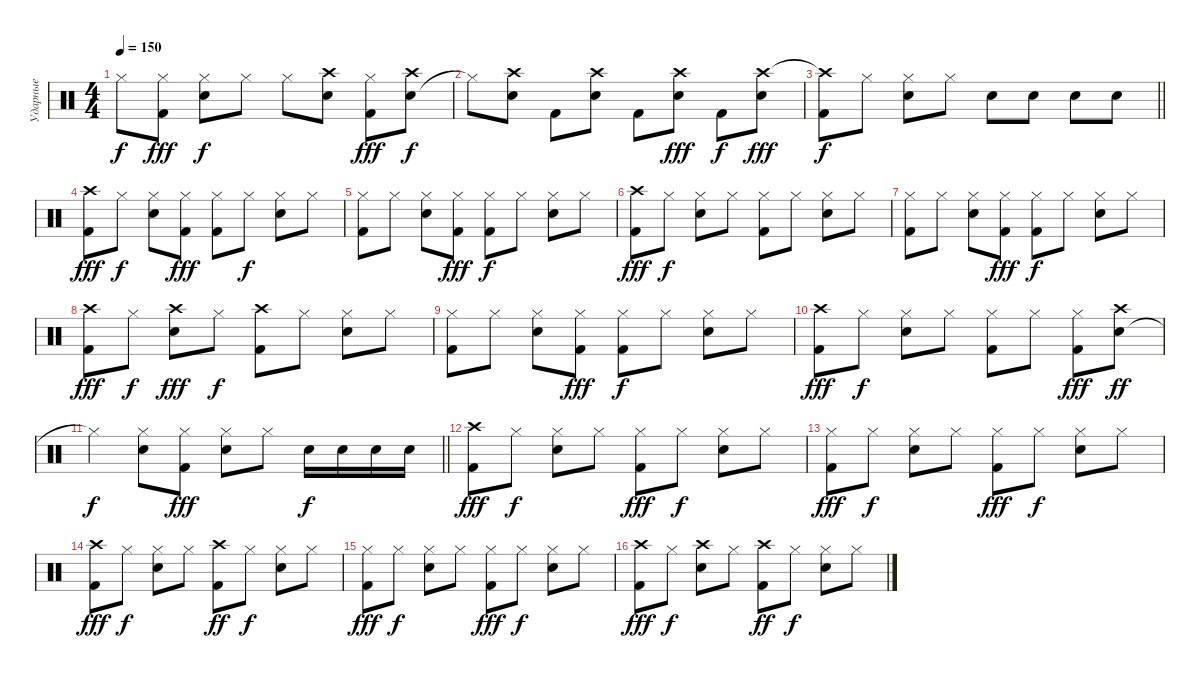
\track ("Ударные" "Ударные") {instrument percussion}
\staff
\articulation defaults
\ts (4 4)
\tempo 150
\clef neutral
\ks c "Hi-Hat (closed)"{t}.8{dy f}
("Kick (hit) 2" "Hi-Hat (closed)").8{dy fff} ("Snare (hit) 2" "Hi-Hat (closed)").8{dy f} "Hi-Hat (closed)".8 "Hi-Hat (closed)".8 ("Snare (hit) 2" "Crash high (hit)").8 ("Kick (hit) 2" "Hi-Hat (closed)").8{dy fff} ("Snare (hit) 2" "Crash high (hit)").8{dy f} |
"Hi-Hat (closed)"{t}.8 ("Snare (hit) 2" "Crash high (hit)").8 "Kick (hit) 2".8 ("Snare (hit) 2" "Crash high (hit)").8 "Kick (hit) 2".8 ("Snare (hit) 2" "Crash high (hit)").8{dy fff} "Kick (hit) 2".8{dy f} ("Snare (hit) 2" "Crash high (hit)").8{dy fff} |
\barLineRight lightlight
("Kick (hit) 2" "Crash high (hit)"{t}).8{dy f} "Hi-Hat (closed)".8 ("Snare (hit) 2" "Hi-Hat (closed)").8 "Hi-Hat (closed)".8 "Snare (hit) 2".8 "Snare (hit) 2".8 "Snare (hit) 2".8 "Snare (hit) 2".8 |
("Kick (hit) 2" "Crash high (hit)").8{dy fff} "Hi-Hat (closed)".8{dy f} ("Snare (hit) 2" "Hi-Hat (closed)").8 ("Kick (hit) 2" "Hi-Hat (closed)").8{dy fff} ("Kick (hit) 2" "Hi-Hat (closed)").8 "Hi-Hat (closed)".8{dy f} ("Snare (hit) 2" "Hi-Hat (closed)").8 "Hi-Hat (closed)".8 |
("Kick (hit) 2" "Hi-Hat (closed)").8 "Hi-Hat (closed)".8 ("Snare (hit) 2" "Hi-Hat (closed)").8 ("Kick (hit) 2" "Hi-Hat (closed)").8{dy fff} ("Kick (hit) 2" "Hi-Hat (closed)").8{dy f} "Hi-Hat (closed)".8 ("Snare (hit) 2" "Hi-Hat (closed)").8 "Hi-Hat (closed)".8 |
("Kick (hit) 2" "Crash high (hit)").8{dy fff} "Hi-Hat (closed)".8{dy f} ("Snare (hit) 2" "Hi-Hat (closed)").8 "Hi-Hat (closed)".8 ("Kick (hit) 2" "Hi-Hat (closed)").8 "Hi-Hat (closed)".8 ("Snare (hit) 2" "Hi-Hat (closed)").8 "Hi-Hat (closed)".8 |
("Kick (hit) 2" "Hi-Hat (closed)").8 "Hi-Hat (closed)".8 ("Snare (hit) 2" "Hi-Hat (closed)").8 ("Kick (hit) 2" "Hi-Hat (closed)").8{dy fff} ("Kick (hit) 2" "Hi-Hat (closed)").8{dy f} "Hi-Hat (closed)".8 ("Snare (hit) 2" "Hi-Hat (closed)").8 "Hi-Hat (closed)".8 |
("Kick (hit) 2" "Crash high (hit)").8{dy fff} "Hi-Hat (closed)".8{dy f} ("Snare (hit) 2" "Crash high (hit)").8{dy fff} "Hi-Hat (closed)".8{dy f} ("Kick (hit) 2" "Crash high (hit)").8 "Hi-Hat (closed)".8 ("Snare (hit) 2" "Hi-Hat (closed)").8 "Hi-Hat (closed)".8 |
("Kick (hit) 2" "Hi-Hat (closed)").8 "Hi-Hat (closed)".8 ("Snare (hit) 2" "Hi-Hat (closed)").8 ("Kick (hit) 2" "Hi-Hat (closed)").8{dy fff} ("Kick (hit) 2" "Hi-Hat (closed)").8{dy f} "Hi-Hat (closed)".8 ("Snare (hit) 2" "Hi-Hat (closed)").8 "Hi-Hat (closed)".8 |
("Kick (hit) 2" "Crash high (hit)").8{dy fff} "Hi-Hat (closed)".8{dy f} ("Snare (hit) 2" "Hi-Hat (closed)").8 "Hi-Hat (closed)".8 ("Kick (hit) 2" "Hi-Hat (closed)").8 "Hi-Hat (closed)".8 ("Kick (hit) 2" "Hi-Hat (closed)").8{dy fff} ("Snare (hit) 2" "Crash high (hit)").8{dy ff} |
\barLineRight lightlight "Hi-Hat (closed)"{t}.4{dy f}
("Snare (hit) 2" "Hi-Hat (closed)").8 ("Kick (hit) 2" "Hi-Hat (closed)").8{dy fff} ("Snare (hit) 2" "Hi-Hat (closed)").8 "Hi-Hat (closed)".8 "Snare (hit) 2".16{dy f} "Snare (hit) 2".16 "Snare (hit) 2".16 "Snare (hit) 2".16 |
("Kick (hit) 2" "Crash high (hit)").8{dy fff} "Hi-Hat (closed)".8{dy f} ("Snare (hit) 2" "Hi-Hat (closed)").8 "Hi-Hat (closed)".8 ("Kick (hit) 2" "Hi-Hat (closed)").8{dy fff} "Hi-Hat (closed)".8{dy f} ("Snare (hit) 2" "Hi-Hat (closed)").8 "Hi-Hat (closed)".8 |
("Kick (hit) 2" "Hi-Hat (closed)").8{dy fff} "Hi-Hat (closed)".8{dy f} ("Snare (hit) 2" "Hi-Hat (closed)").8 "Hi-Hat (closed)".8 ("Kick (hit) 2" "Hi-Hat (closed)").8{dy fff} "Hi-Hat (closed)".8{dy f} ("Snare (hit) 2" "Hi-Hat (closed)").8 "Hi-Hat (closed)".8 |
("Kick (hit) 2" "Crash high (hit)").8{dy fff} "Hi-Hat (closed)".8{dy f} ("Snare (hit) 2" "Hi-Hat (closed)").8 "Hi-Hat (closed)".8 ("Kick (hit) 2" "Crash high (hit)").8{dy ff} "Hi-Hat (closed)".8{dy f} ("Snare (hit) 2" "Hi-Hat (closed)").8 "Hi-Hat (closed)".8 |
("Kick (hit) 2" "Hi-Hat (closed)").8{dy fff} "Hi-Hat (closed)".8{dy f} ("Snare (hit) 2" "Hi-Hat (closed)").8 "Hi-Hat (closed)".8 ("Kick (hit) 2" "Hi-Hat (closed)").8{dy fff} "Hi-Hat (closed)".8{dy f} ("Snare (hit) 2" "Hi-Hat (closed)").8 "Hi-Hat (closed)".8 |
("Kick (hit) 2" "Crash high (hit)").8{dy fff} "Hi-Hat (closed)".8{dy f} ("Snare (hit) 2" "Crash high (hit)").8 "Hi-Hat (closed)".8 ("Kick (hit) 2" "Crash high (hit)").8{dy ff} "Hi-Hat (closed)".8{dy f} ("Snare (hit) 2" "Hi-Hat (closed)").8 "Hi-Hat (closed)".8
